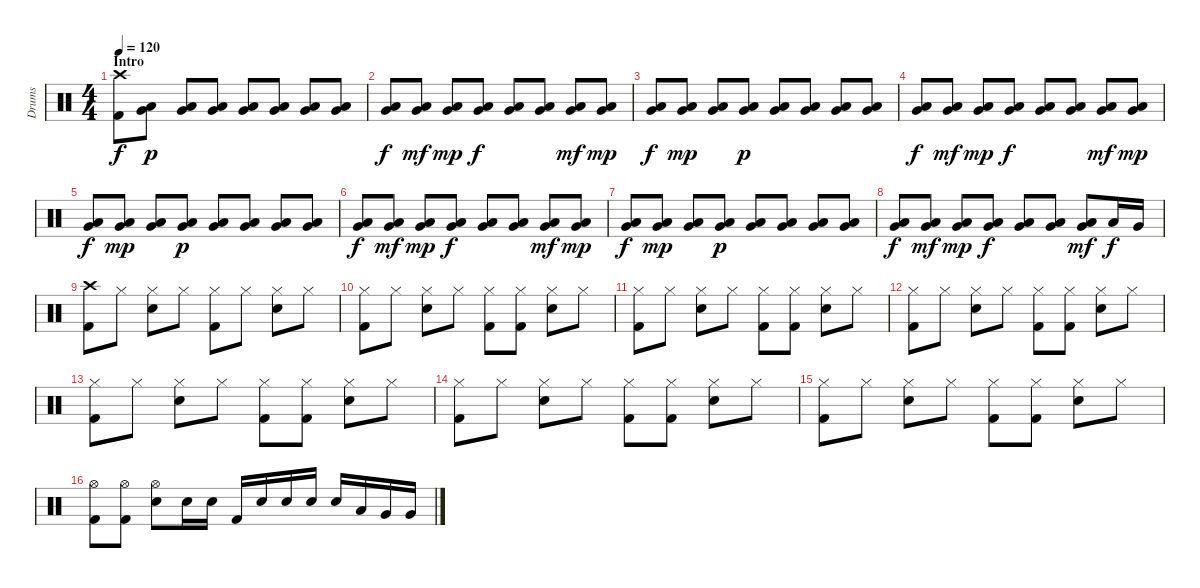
\track ("Drums" "Drums") {instrument percussion}
\staff {score}
\articulation defaults
\ts (4 4)
\section ("" "Intro")
\tempo 120
\clef neutral
\ks c
("Crash high (hit)" "Kick (hit) 2").8{dy f} ("Low Tom (hit)" "Very Low Tom (hit)").8{dy p} ("Low Tom (hit)" "Very Low Tom (hit)").8 ("Low Tom (hit)" "Very Low Tom (hit)").8 ("Low Tom (hit)" "Very Low Tom (hit)").8 ("Low Tom (hit)" "Very Low Tom (hit)").8 ("Low Tom (hit)" "Very Low Tom (hit)").8 ("Low Tom (hit)" "Very Low Tom (hit)").8 |
("Low Tom (hit)" "Very Low Tom (hit)").8{dy f} ("Low Tom (hit)" "Very Low Tom (hit)").8{dy mf} ("Low Tom (hit)" "Very Low Tom (hit)").8{dy mp} ("Low Tom (hit)" "Very Low Tom (hit)").8{dy f} ("Low Tom (hit)" "Very Low Tom (hit)").8 ("Low Tom (hit)" "Very Low Tom (hit)").8 ("Low Tom (hit)" "Very Low Tom (hit)").8{dy mf} ("Low Tom (hit)" "Very Low Tom (hit)").8{dy mp} |
("Low Tom (hit)" "Very Low Tom (hit)").8{dy f} ("Low Tom (hit)" "Very Low Tom (hit)").8{dy mp} ("Low Tom (hit)" "Very Low Tom (hit)").8 ("Low Tom (hit)" "Very Low Tom (hit)").8{dy p} ("Low Tom (hit)" "Very Low Tom (hit)").8 ("Low Tom (hit)" "Very Low Tom (hit)").8 ("Low Tom (hit)" "Very Low Tom (hit)").8 ("Low Tom (hit)" "Very Low Tom (hit)").8 |
("Low Tom (hit)" "Very Low Tom (hit)").8{dy f} ("Low Tom (hit)" "Very Low Tom (hit)").8{dy mf} ("Low Tom (hit)" "Very Low Tom (hit)").8{dy mp} ("Low Tom (hit)" "Very Low Tom (hit)").8{dy f} ("Low Tom (hit)" "Very Low Tom (hit)").8 ("Low Tom (hit)" "Very Low Tom (hit)").8 ("Low Tom (hit)" "Very Low Tom (hit)").8{dy mf} ("Low Tom (hit)" "Very Low Tom (hit)").8{dy mp} |
("Low Tom (hit)" "Very Low Tom (hit)").8{dy f} ("Low Tom (hit)" "Very Low Tom (hit)").8{dy mp} ("Low Tom (hit)" "Very Low Tom (hit)").8 ("Low Tom (hit)" "Very Low Tom (hit)").8{dy p} ("Low Tom (hit)" "Very Low Tom (hit)").8 ("Low Tom (hit)" "Very Low Tom (hit)").8 ("Low Tom (hit)" "Very Low Tom (hit)").8 ("Low Tom (hit)" "Very Low Tom (hit)").8 |
("Low Tom (hit)" "Very Low Tom (hit)").8{dy f} ("Low Tom (hit)" "Very Low Tom (hit)").8{dy mf} ("Low Tom (hit)" "Very Low Tom (hit)").8{dy mp} ("Low Tom (hit)" "Very Low Tom (hit)").8{dy f} ("Low Tom (hit)" "Very Low Tom (hit)").8 ("Low Tom (hit)" "Very Low Tom (hit)").8 ("Low Tom (hit)" "Very Low Tom (hit)").8{dy mf} ("Low Tom (hit)" "Very Low Tom (hit)").8{dy mp} |
("Low Tom (hit)" "Very Low Tom (hit)").8{dy f} ("Low Tom (hit)" "Very Low Tom (hit)").8{dy mp} ("Low Tom (hit)" "Very Low Tom (hit)").8 ("Low Tom (hit)" "Very Low Tom (hit)").8{dy p} ("Low Tom (hit)" "Very Low Tom (hit)").8 ("Low Tom (hit)" "Very Low Tom (hit)").8 ("Low Tom (hit)" "Very Low Tom (hit)").8 ("Low Tom (hit)" "Very Low Tom (hit)").8 |
("Low Tom (hit)" "Very Low Tom (hit)").8{dy f} ("Low Tom (hit)" "Very Low Tom (hit)").8{dy mf} ("Low Tom (hit)" "Very Low Tom (hit)").8{dy mp} ("Low Tom (hit)" "Very Low Tom (hit)").8{dy f} ("Low Tom (hit)" "Very Low Tom (hit)").8 ("Low Tom (hit)" "Very Low Tom (hit)").8 ("Low Tom (hit)" "Very Low Tom (hit)").8{dy mf} "Low Tom (hit)".16{dy f} "Very Low Tom (hit)".16 |
("Crash high (hit)" "Kick (hit) 2").8 "Hi-Hat (closed)".8 ("Hi-Hat (closed)" "Electric Snare (hit)").8 "Hi-Hat (closed)".8 ("Hi-Hat (closed)" "Kick (hit) 2").8 "Hi-Hat (closed)".8 ("Hi-Hat (closed)" "Electric Snare (hit)").8 "Hi-Hat (closed)".8 |
("Hi-Hat (closed)" "Kick (hit) 2").8 "Hi-Hat (closed)".8 ("Hi-Hat (closed)" "Electric Snare (hit)").8 "Hi-Hat (closed)".8 ("Hi-Hat (closed)" "Kick (hit) 2").8 ("Hi-Hat (closed)" "Kick (hit) 2").8 ("Hi-Hat (closed)" "Electric Snare (hit)").8 "Hi-Hat (closed)".8 |
("Hi-Hat (closed)" "Kick (hit) 2").8 "Hi-Hat (closed)".8 ("Hi-Hat (closed)" "Electric Snare (hit)").8 "Hi-Hat (closed)".8 ("Hi-Hat (closed)" "Kick (hit) 2").8 ("Hi-Hat (closed)" "Kick (hit) 2").8 ("Hi-Hat (closed)" "Electric Snare (hit)").8 "Hi-Hat (closed)".8 |
("Hi-Hat (closed)" "Kick (hit) 2").8 "Hi-Hat (closed)".8 ("Hi-Hat (closed)" "Electric Snare (hit)").8 "Hi-Hat (closed)".8 ("Hi-Hat (closed)" "Kick (hit) 2").8 ("Hi-Hat (closed)" "Kick (hit) 2").8 ("Hi-Hat (closed)" "Electric Snare (hit)").8 "Hi-Hat (closed)".8 |
("Hi-Hat (closed)" "Kick (hit) 2").8 "Hi-Hat (closed)".8 ("Hi-Hat (closed)" "Electric Snare (hit)").8 "Hi-Hat (closed)".8 ("Hi-Hat (closed)" "Kick (hit) 2").8 ("Hi-Hat (closed)" "Kick (hit) 2").8 ("Hi-Hat (closed)" "Electric Snare (hit)").8 "Hi-Hat (closed)".8 |
("Hi-Hat (closed)" "Kick (hit) 2").8 "Hi-Hat (closed)".8 ("Hi-Hat (closed)" "Electric Snare (hit)").8 "Hi-Hat (closed)".8 ("Hi-Hat (closed)" "Kick (hit) 2").8 ("Hi-Hat (closed)" "Kick (hit) 2").8 ("Hi-Hat (closed)" "Electric Snare (hit)").8 "Hi-Hat (closed)".8 |
("Hi-Hat (closed)" "Kick (hit) 2").8 "Hi-Hat (closed)".8 ("Hi-Hat (closed)" "Electric Snare (hit)").8 "Hi-Hat (closed)".8 ("Hi-Hat (closed)" "Kick (hit) 2").8 ("Hi-Hat (closed)" "Kick (hit) 2").8 ("Hi-Hat (closed)" "Electric Snare (hit)").8 "Hi-Hat (closed)".8 |
("Hi-Hat (open)" "Kick (hit) 2").8 ("Hi-Hat (open)" "Kick (hit) 2").8 ("Hi-Hat (open)" "Electric Snare (hit)").8 "Electric Snare (hit)".16 "Electric Snare (hit)".16 "Kick (hit) 2".16 "Electric Snare (hit)".16 "Electric Snare (hit)".16 "Electric Snare (hit)".16 "Electric Snare (hit)".16 "Low Tom (hit)".16 "Very Low Tom (hit)".16 "Very Low Tom (hit)".16
